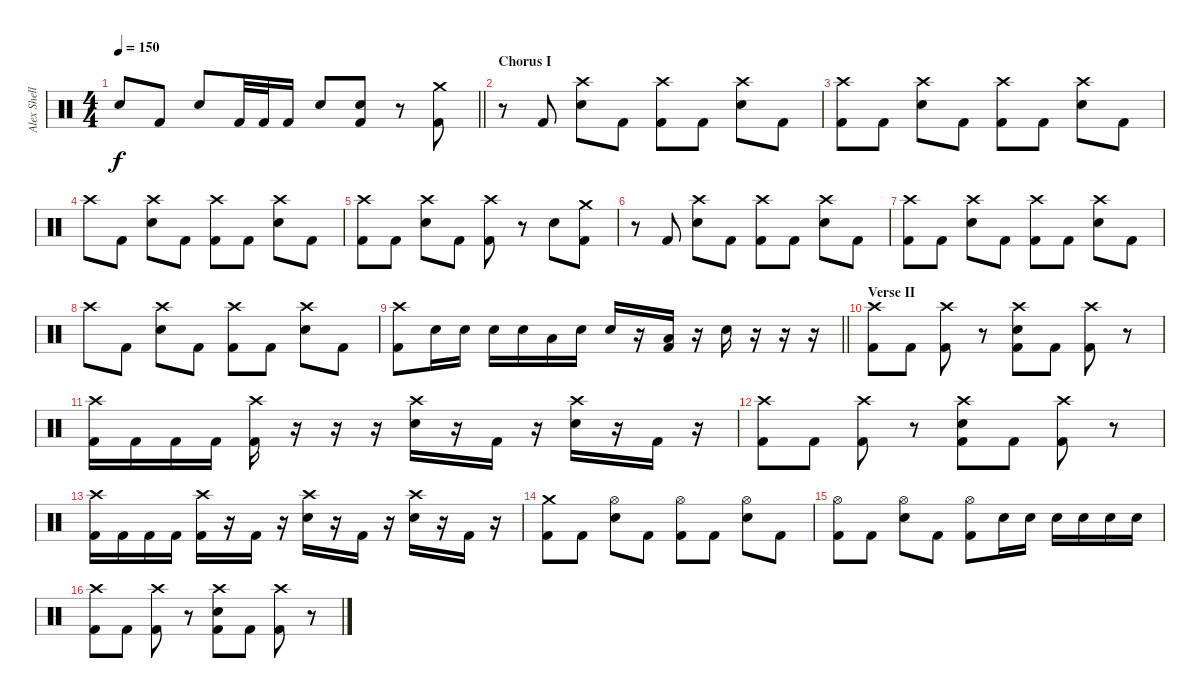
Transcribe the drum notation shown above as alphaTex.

\track ("Alex Shellnutt" "Alex Shell") {instrument percussion}
\staff {score}
\articulation defaults
\ts (4 4)
\tempo 150
\clef neutral
\barLineRight lightlight
\ks c "Snare (hit) 2".8{dy f} "Kick (hit) 2".8 "Snare (hit) 2".8 "Kick (hit) 2".32 "Kick (hit) 2".32 "Kick (hit) 2".16 "Snare (hit) 2".8
("Snare (hit) 2" "Kick (hit) 2").8 r.8 ("Crash medium (hit)" "Kick (hit) 2").8 |
\section ("" "Chorus I")
r.8 "Kick (hit) 2".8 ("Crash high (hit)" "Snare (hit) 2").8 "Kick (hit) 2".8 ("Crash high (hit)" "Kick (hit) 2").8 "Kick (hit) 2".8 ("Crash high (hit)" "Snare (hit) 2").8 "Kick (hit) 2".8 |
("Crash high (hit)" "Kick (hit) 2").8 "Kick (hit) 2".8 ("Crash high (hit)" "Snare (hit) 2").8 "Kick (hit) 2".8 ("Crash high (hit)" "Kick (hit) 2").8 "Kick (hit) 2".8 ("Crash high (hit)" "Snare (hit) 2").8 "Kick (hit) 2".8 |
"Crash high (hit)".8 "Kick (hit) 2".8 ("Crash high (hit)" "Snare (hit) 2").8 "Kick (hit) 2".8 ("Crash high (hit)" "Kick (hit) 2").8 "Kick (hit) 2".8 ("Crash high (hit)" "Snare (hit) 2").8 "Kick (hit) 2".8 |
("Crash high (hit)" "Kick (hit) 2").8 "Kick (hit) 2".8 ("Crash high (hit)" "Snare (hit) 2").8 "Kick (hit) 2".8 ("Crash high (hit)" "Kick (hit) 2").8 r.8 "Snare (hit) 2".8 ("Crash medium (hit)" "Kick (hit) 2").8 |
r.8 "Kick (hit) 2".8 ("Crash high (hit)" "Snare (hit) 2").8 "Kick (hit) 2".8 ("Crash high (hit)" "Kick (hit) 2").8 "Kick (hit) 2".8 ("Crash high (hit)" "Snare (hit) 2").8 "Kick (hit) 2".8 |
("Crash high (hit)" "Kick (hit) 2").8 "Kick (hit) 2".8 ("Crash high (hit)" "Snare (hit) 2").8 "Kick (hit) 2".8 ("Crash high (hit)" "Kick (hit) 2").8 "Kick (hit) 2".8 ("Crash high (hit)" "Snare (hit) 2").8 "Kick (hit) 2".8 |
"Crash high (hit)".8 "Kick (hit) 2".8 ("Crash high (hit)" "Snare (hit) 2").8 "Kick (hit) 2".8 ("Crash high (hit)" "Kick (hit) 2").8 "Kick (hit) 2".8 ("Crash high (hit)" "Snare (hit) 2").8 "Kick (hit) 2".8 |
\barLineRight lightlight
("Crash high (hit)" "Kick (hit) 2").8 "Snare (hit) 2".16 "Snare (hit) 2".16 "Snare (hit) 2".16 "Snare (hit) 2".16 "Low Floor Tom (hit)".16 "Snare (hit) 2".16 "Snare (hit) 2".16 r.16 ("Low Floor Tom (hit)" "Kick (hit) 2").16 r.16 "Snare (hit) 2".16 r.16 r.16 r.16 |
\section ("" "Verse II")
("Crash high (hit)" "Kick (hit) 2").8 "Kick (hit) 2".8 ("Crash high (hit)" "Kick (hit) 2").8 r.8 ("Crash high (hit)" "Snare (hit) 2" "Kick (hit) 2").8 "Kick (hit) 2".8 ("Crash high (hit)" "Kick (hit) 2").8 r.8 |
("Crash high (hit)" "Kick (hit) 2").16 "Kick (hit) 2".16 "Kick (hit) 2".16 "Kick (hit) 2".16 ("Crash high (hit)" "Kick (hit) 2").16 r.16 r.16 r.16 ("Crash high (hit)" "Snare (hit) 2").16 r.16 "Kick (hit) 2".16 r.16 ("Crash high (hit)" "Snare (hit) 2").16 r.16 "Kick (hit) 2".16 r.16 |
("Crash high (hit)" "Kick (hit) 2").8 "Kick (hit) 2".8 ("Crash high (hit)" "Kick (hit) 2").8 r.8 ("Crash high (hit)" "Snare (hit) 2" "Kick (hit) 2").8 "Kick (hit) 2".8 ("Crash high (hit)" "Kick (hit) 2").8 r.8 |
("Crash high (hit)" "Kick (hit) 2").16 "Kick (hit) 2".16 "Kick (hit) 2".16 "Kick (hit) 2".16 ("Crash high (hit)" "Kick (hit) 2").16 r.16 "Kick (hit) 2".16 r.16 ("Crash high (hit)" "Snare (hit) 2").16 r.16 "Kick (hit) 2".16 r.16 ("Crash high (hit)" "Snare (hit) 2").16 r.16 "Kick (hit) 2".16 r.16 |
("Crash medium (hit)" "Kick (hit) 2").8 "Kick (hit) 2".8 ("Hi-Hat (open)" "Snare (hit) 2").8 "Kick (hit) 2".8 ("Hi-Hat (open)" "Kick (hit) 2").8 "Kick (hit) 2".8 ("Hi-Hat (open)" "Snare (hit) 2").8 "Kick (hit) 2".8 |
("Hi-Hat (open)" "Kick (hit) 2").8 "Kick (hit) 2".8 ("Hi-Hat (open)" "Snare (hit) 2").8 "Kick (hit) 2".8 ("Hi-Hat (open)" "Kick (hit) 2").8 "Snare (hit) 2".16 "Snare (hit) 2".16 "Snare (hit) 2".16 "Snare (hit) 2".16 "Snare (hit) 2".16 "Snare (hit) 2".16 |
("Crash high (hit)" "Kick (hit) 2").8 "Kick (hit) 2".8 ("Crash high (hit)" "Kick (hit) 2").8 r.8 ("Crash high (hit)" "Snare (hit) 2" "Kick (hit) 2").8 "Kick (hit) 2".8 ("Crash high (hit)" "Kick (hit) 2").8 r.8
